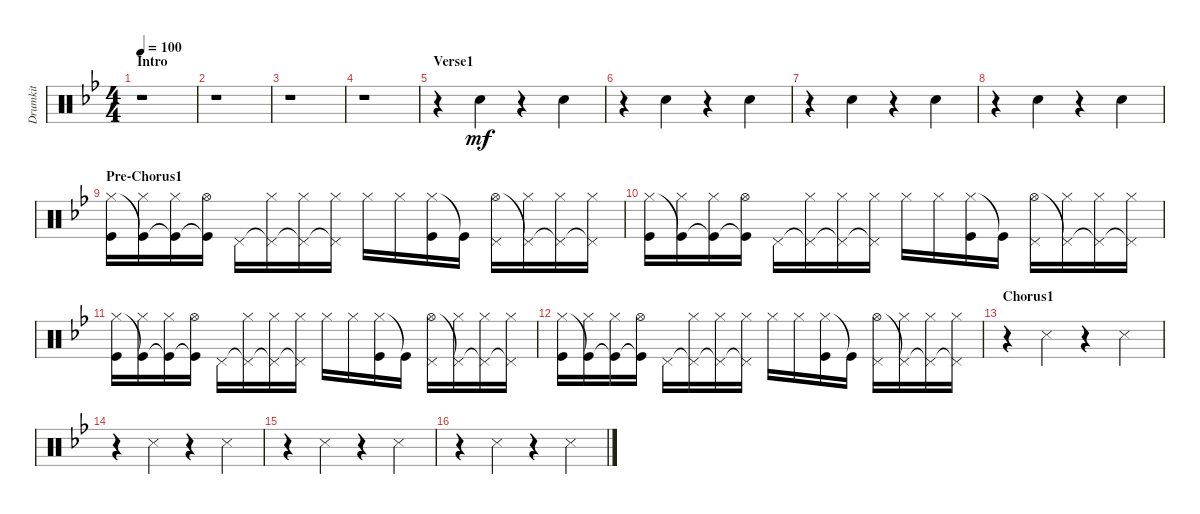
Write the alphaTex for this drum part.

\track ("Drumkit" "Drumkit") {instrument percussion}
\staff {score}
\articulation defaults
\ts (4 4)
\section ("" "Intro")
\tempo 100
\clef neutral
\ks gminor
r.1{dy mf} |
r.1 |
r.1 |
r.1 |
\section ("" "Verse1")
r.4 "Hand Clap (hit)".4 r.4 "Hand Clap (hit)".4 |
r.4 "Hand Clap (hit)".4 r.4 "Hand Clap (hit)".4 |
r.4 "Hand Clap (hit)".4 r.4 "Hand Clap (hit)".4 |
r.4 "Hand Clap (hit)".4 r.4 "Hand Clap (hit)".4 |
\section ("" "Pre-Chorus1")
("Hi-Hat (closed)" "Kick (hit)").16 ("Kick (hit)"{t} "Hi-Hat (closed)").16 ("Kick (hit)"{t} "Hi-Hat (closed)").16 ("Kick (hit)"{t} "Hi-Hat (open)").16 "Pedal Hi-Hat (hit)".16 ("Pedal Hi-Hat (hit)"{t} "Hi-Hat (closed)").16 ("Pedal Hi-Hat (hit)"{t} "Hi-Hat (closed)").16 ("Pedal Hi-Hat (hit)"{t} "Hi-Hat (closed)").16 "Hi-Hat (closed)".16 "Hi-Hat (closed)".16 ("Hi-Hat (closed)" "Kick (hit)").16 "Kick (hit)"{t}.16 ("Hi-Hat (open)" "Pedal Hi-Hat (hit)").16 ("Pedal Hi-Hat (hit)"{t} "Hi-Hat (closed)").16 ("Pedal Hi-Hat (hit)"{t} "Hi-Hat (closed)").16 ("Pedal Hi-Hat (hit)"{t} "Hi-Hat (closed)").16 |
("Hi-Hat (closed)" "Kick (hit)").16 ("Kick (hit)"{t} "Hi-Hat (closed)").16 ("Kick (hit)"{t} "Hi-Hat (closed)").16 ("Kick (hit)"{t} "Hi-Hat (open)").16 "Pedal Hi-Hat (hit)".16 ("Pedal Hi-Hat (hit)"{t} "Hi-Hat (closed)").16 ("Pedal Hi-Hat (hit)"{t} "Hi-Hat (closed)").16 ("Pedal Hi-Hat (hit)"{t} "Hi-Hat (closed)").16 "Hi-Hat (closed)".16 "Hi-Hat (closed)".16 ("Hi-Hat (closed)" "Kick (hit)").16 "Kick (hit)"{t}.16 ("Hi-Hat (open)" "Pedal Hi-Hat (hit)").16 ("Pedal Hi-Hat (hit)"{t} "Hi-Hat (closed)").16 ("Pedal Hi-Hat (hit)"{t} "Hi-Hat (closed)").16 ("Pedal Hi-Hat (hit)"{t} "Hi-Hat (closed)").16 |
("Hi-Hat (closed)" "Kick (hit)").16 ("Kick (hit)"{t} "Hi-Hat (closed)").16 ("Kick (hit)"{t} "Hi-Hat (closed)").16 ("Kick (hit)"{t} "Hi-Hat (open)").16 "Pedal Hi-Hat (hit)".16 ("Pedal Hi-Hat (hit)"{t} "Hi-Hat (closed)").16 ("Pedal Hi-Hat (hit)"{t} "Hi-Hat (closed)").16 ("Pedal Hi-Hat (hit)"{t} "Hi-Hat (closed)").16 "Hi-Hat (closed)".16 "Hi-Hat (closed)".16 ("Hi-Hat (closed)" "Kick (hit)").16 "Kick (hit)"{t}.16 ("Hi-Hat (open)" "Pedal Hi-Hat (hit)").16 ("Pedal Hi-Hat (hit)"{t} "Hi-Hat (closed)").16 ("Pedal Hi-Hat (hit)"{t} "Hi-Hat (closed)").16 ("Pedal Hi-Hat (hit)"{t} "Hi-Hat (closed)").16 |
("Hi-Hat (closed)" "Kick (hit)").16 ("Kick (hit)"{t} "Hi-Hat (closed)").16 ("Kick (hit)"{t} "Hi-Hat (closed)").16 ("Kick (hit)"{t} "Hi-Hat (open)").16 "Pedal Hi-Hat (hit)".16 ("Pedal Hi-Hat (hit)"{t} "Hi-Hat (closed)").16 ("Pedal Hi-Hat (hit)"{t} "Hi-Hat (closed)").16 ("Pedal Hi-Hat (hit)"{t} "Hi-Hat (closed)").16 "Hi-Hat (closed)".16 "Hi-Hat (closed)".16 ("Hi-Hat (closed)" "Kick (hit)").16 "Kick (hit)"{t}.16 ("Hi-Hat (open)" "Pedal Hi-Hat (hit)").16 ("Pedal Hi-Hat (hit)"{t} "Hi-Hat (closed)").16 ("Pedal Hi-Hat (hit)"{t} "Hi-Hat (closed)").16 ("Pedal Hi-Hat (hit)"{t} "Hi-Hat (closed)").16 |
\section ("" "Chorus1")
r.4 "Snare (side stick) 3".4 r.4 "Snare (side stick) 3".4 |
r.4 "Snare (side stick) 3".4 r.4 "Snare (side stick) 3".4 |
r.4 "Snare (side stick) 3".4 r.4 "Snare (side stick) 3".4 |
r.4 "Snare (side stick) 3".4 r.4 "Snare (side stick) 3".4
